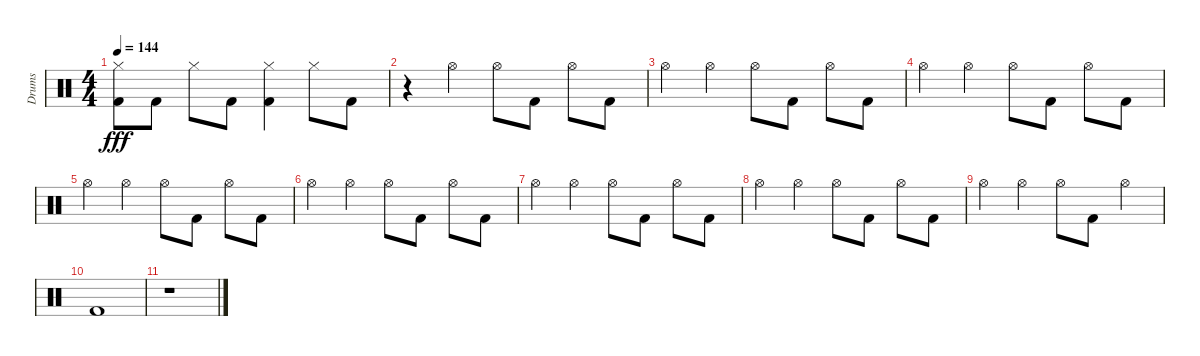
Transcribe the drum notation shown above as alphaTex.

\track ("Drums" "Drums") {instrument percussion}
\staff {score}
\articulation defaults
\ts (4 4)
\tempo 144
\clef neutral
\ks c
("Hi-Hat (closed)" "Kick (hit) 2").8{dy fff} "Kick (hit) 2".8 "Hi-Hat (closed)".8 "Kick (hit) 2".8 ("Hi-Hat (closed)" "Kick (hit) 2").4 "Hi-Hat (closed)".8 "Kick (hit) 2".8 |
r.4 "Hi-Hat (open)".4 "Hi-Hat (open)".8 "Kick (hit) 2".8 "Hi-Hat (open)".8 "Kick (hit) 2".8 |
"Hi-Hat (open)".4 "Hi-Hat (open)".4 "Hi-Hat (open)".8 "Kick (hit) 2".8 "Hi-Hat (open)".8 "Kick (hit) 2".8 |
"Hi-Hat (open)".4 "Hi-Hat (open)".4 "Hi-Hat (open)".8 "Kick (hit) 2".8 "Hi-Hat (open)".8 "Kick (hit) 2".8 |
"Hi-Hat (open)".4 "Hi-Hat (open)".4 "Hi-Hat (open)".8 "Kick (hit) 2".8 "Hi-Hat (open)".8 "Kick (hit) 2".8 |
"Hi-Hat (open)".4 "Hi-Hat (open)".4 "Hi-Hat (open)".8 "Kick (hit) 2".8 "Hi-Hat (open)".8 "Kick (hit) 2".8 |
"Hi-Hat (open)".4 "Hi-Hat (open)".4 "Hi-Hat (open)".8 "Kick (hit) 2".8 "Hi-Hat (open)".8 "Kick (hit) 2".8 |
"Hi-Hat (open)".4 "Hi-Hat (open)".4 "Hi-Hat (open)".8 "Kick (hit) 2".8 "Hi-Hat (open)".8 "Kick (hit) 2".8 |
"Hi-Hat (open)".4 "Hi-Hat (open)".4 "Hi-Hat (open)".8 "Kick (hit) 2".8 "Hi-Hat (open)".4 |
"Kick (hit) 2".1 |
r.1
